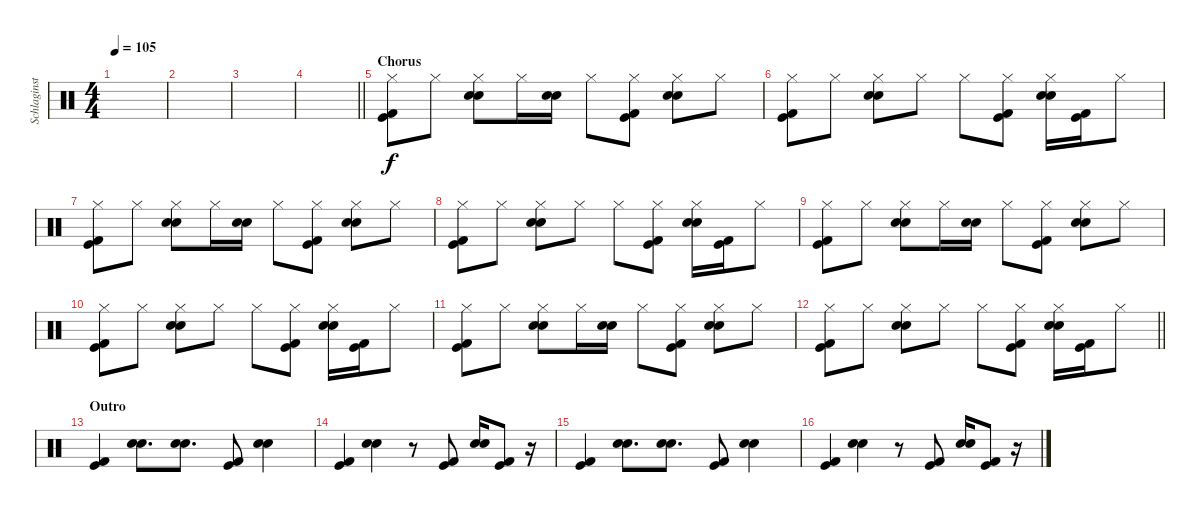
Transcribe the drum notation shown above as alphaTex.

\track ("Schlaginstrumente - Auswahl" "Schlaginst") {instrument percussion}
\staff {score}
\articulation defaults
\ts (4 4)
\tempo 105
\clef neutral
\ks c
|
|
|
\barLineRight lightlight
|
\section ("" "Chorus")
("Kick (hit)" "Kick (hit) 2" "Hi-Hat (closed)").8 "Hi-Hat (closed)".8 ("Electric Snare (hit)" "Snare (hit) 2" "Hi-Hat (closed)").8 "Hi-Hat (closed)".16 ("Electric Snare (hit)" "Snare (hit) 2").16 "Hi-Hat (closed)".8 ("Kick (hit) 2" "Hi-Hat (closed)" "Kick (hit)").8 ("Snare (hit) 2" "Electric Snare (hit)" "Hi-Hat (closed)").8 "Hi-Hat (closed)".8 |
("Kick (hit)" "Kick (hit) 2" "Hi-Hat (closed)").8 "Hi-Hat (closed)".8 ("Snare (hit) 2" "Electric Snare (hit)" "Hi-Hat (closed)").8 "Hi-Hat (closed)".8 "Hi-Hat (closed)".8 ("Kick (hit) 2" "Kick (hit)" "Hi-Hat (closed)").8 ("Snare (hit) 2" "Electric Snare (hit)" "Hi-Hat (closed)").16 ("Kick (hit)" "Kick (hit) 2").16 "Hi-Hat (closed)".8 |
("Kick (hit)" "Kick (hit) 2" "Hi-Hat (closed)").8 "Hi-Hat (closed)".8 ("Electric Snare (hit)" "Snare (hit) 2" "Hi-Hat (closed)").8 "Hi-Hat (closed)".16 ("Electric Snare (hit)" "Snare (hit) 2").16 "Hi-Hat (closed)".8 ("Kick (hit) 2" "Hi-Hat (closed)" "Kick (hit)").8 ("Snare (hit) 2" "Electric Snare (hit)" "Hi-Hat (closed)").8 "Hi-Hat (closed)".8 |
("Kick (hit)" "Kick (hit) 2" "Hi-Hat (closed)").8 "Hi-Hat (closed)".8 ("Snare (hit) 2" "Electric Snare (hit)" "Hi-Hat (closed)").8 "Hi-Hat (closed)".8 "Hi-Hat (closed)".8 ("Kick (hit) 2" "Kick (hit)" "Hi-Hat (closed)").8 ("Snare (hit) 2" "Electric Snare (hit)" "Hi-Hat (closed)").16 ("Kick (hit)" "Kick (hit) 2").16 "Hi-Hat (closed)".8 |
("Kick (hit)" "Kick (hit) 2" "Hi-Hat (closed)").8 "Hi-Hat (closed)".8 ("Electric Snare (hit)" "Snare (hit) 2" "Hi-Hat (closed)").8 "Hi-Hat (closed)".16 ("Electric Snare (hit)" "Snare (hit) 2").16 "Hi-Hat (closed)".8 ("Kick (hit) 2" "Hi-Hat (closed)" "Kick (hit)").8 ("Snare (hit) 2" "Electric Snare (hit)" "Hi-Hat (closed)").8 "Hi-Hat (closed)".8 |
("Kick (hit)" "Kick (hit) 2" "Hi-Hat (closed)").8 "Hi-Hat (closed)".8 ("Snare (hit) 2" "Electric Snare (hit)" "Hi-Hat (closed)").8 "Hi-Hat (closed)".8 "Hi-Hat (closed)".8 ("Kick (hit) 2" "Kick (hit)" "Hi-Hat (closed)").8 ("Snare (hit) 2" "Electric Snare (hit)" "Hi-Hat (closed)").16 ("Kick (hit)" "Kick (hit) 2").16 "Hi-Hat (closed)".8 |
("Kick (hit)" "Kick (hit) 2" "Hi-Hat (closed)").8 "Hi-Hat (closed)".8 ("Electric Snare (hit)" "Snare (hit) 2" "Hi-Hat (closed)").8 "Hi-Hat (closed)".16 ("Electric Snare (hit)" "Snare (hit) 2").16 "Hi-Hat (closed)".8 ("Kick (hit) 2" "Hi-Hat (closed)" "Kick (hit)").8 ("Snare (hit) 2" "Electric Snare (hit)" "Hi-Hat (closed)").8 "Hi-Hat (closed)".8 |
\barLineRight lightlight
("Kick (hit)" "Kick (hit) 2" "Hi-Hat (closed)").8 "Hi-Hat (closed)".8 ("Snare (hit) 2" "Electric Snare (hit)" "Hi-Hat (closed)").8 "Hi-Hat (closed)".8 "Hi-Hat (closed)".8 ("Kick (hit) 2" "Kick (hit)" "Hi-Hat (closed)").8 ("Snare (hit) 2" "Electric Snare (hit)" "Hi-Hat (closed)").16 ("Kick (hit)" "Kick (hit) 2").16 "Hi-Hat (closed)".8 |
\section ("" "Outro")
("Kick (hit)" "Kick (hit) 2").4 ("Electric Snare (hit)" "Snare (hit) 2").8{d} ("Electric Snare (hit)" "Snare (hit) 2").8{d} ("Kick (hit) 2" "Kick (hit)").8 ("Snare (hit) 2" "Electric Snare (hit)").4 |
("Kick (hit)" "Kick (hit) 2").4 ("Snare (hit) 2" "Electric Snare (hit)").4 r.8 ("Kick (hit) 2" "Kick (hit)").8 ("Snare (hit) 2" "Electric Snare (hit)").16 ("Kick (hit)" "Kick (hit) 2").8 r.16 |
("Kick (hit)" "Kick (hit) 2").4 ("Electric Snare (hit)" "Snare (hit) 2").8{d} ("Electric Snare (hit)" "Snare (hit) 2").8{d} ("Kick (hit) 2" "Kick (hit)").8 ("Snare (hit) 2" "Electric Snare (hit)").4 |
("Kick (hit)" "Kick (hit) 2").4 ("Snare (hit) 2" "Electric Snare (hit)").4 r.8 ("Kick (hit) 2" "Kick (hit)").8 ("Snare (hit) 2" "Electric Snare (hit)").16 ("Kick (hit)" "Kick (hit) 2").8 r.16
